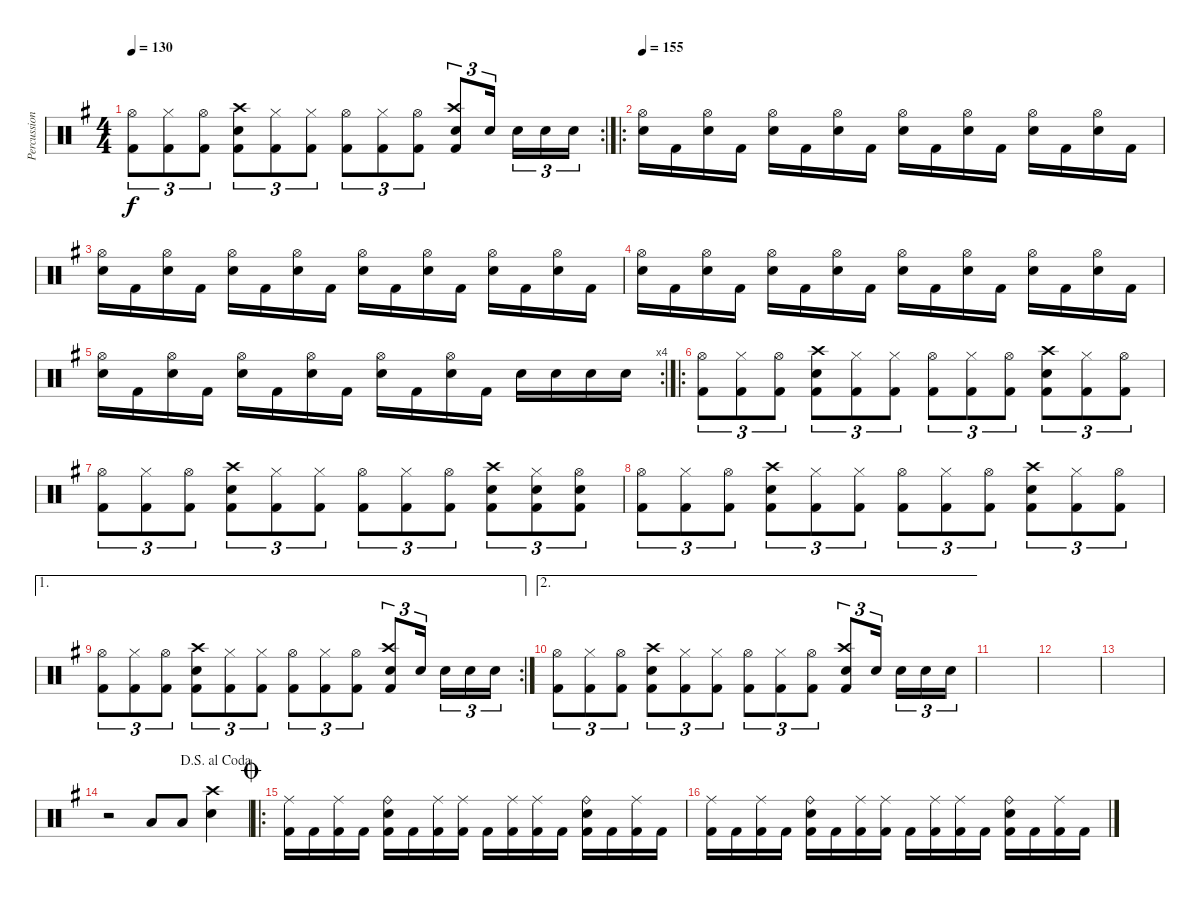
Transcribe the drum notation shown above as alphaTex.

\track ("Percussion" "Percussion") {instrument percussion}
\staff {score}
\articulation defaults
\rc 2
\ts (4 4)
\tempo 130
\clef neutral
\ks eminor
("Hi-Hat (open)" "Kick (hit) 2").8{tu (3 2) dy f} ("Hi-Hat (closed)" "Kick (hit) 2").8{tu (3 2)} ("Hi-Hat (open)" "Kick (hit) 2").8{tu (3 2)} ("Crash high (hit)" "Electric Snare (hit)" "Kick (hit) 2").8{tu (3 2)} ("Hi-Hat (closed)" "Kick (hit) 2").8{tu (3 2)} ("Hi-Hat (closed)" "Kick (hit) 2").8{tu (3 2)} ("Hi-Hat (open)" "Kick (hit) 2").8{tu (3 2)} ("Hi-Hat (closed)" "Kick (hit) 2").8{tu (3 2)} ("Hi-Hat (open)" "Kick (hit) 2").8{tu (3 2)} ("Crash high (hit)" "Electric Snare (hit)" "Kick (hit) 2").8{tu (3 2)} "Electric Snare (hit)".16{tu (3 2) beam splitsecondary} "Electric Snare (hit)".16{tu (3 2)} "Electric Snare (hit)".16{tu (3 2)} "Electric Snare (hit)".16{tu (3 2)} |
\ro
\tempo 155
("Hi-Hat (open)" "Electric Snare (hit)").16 "Kick (hit) 2".16 ("Hi-Hat (open)" "Electric Snare (hit)").16 "Kick (hit) 2".16 ("Hi-Hat (open)" "Electric Snare (hit)").16 "Kick (hit) 2".16 ("Hi-Hat (open)" "Electric Snare (hit)").16 "Kick (hit) 2".16 ("Hi-Hat (open)" "Electric Snare (hit)").16 "Kick (hit) 2".16 ("Hi-Hat (open)" "Electric Snare (hit)").16 "Kick (hit) 2".16 ("Hi-Hat (open)" "Electric Snare (hit)").16 "Kick (hit) 2".16 ("Hi-Hat (open)" "Electric Snare (hit)").16 "Kick (hit) 2".16 |
("Hi-Hat (open)" "Electric Snare (hit)").16 "Kick (hit) 2".16 ("Hi-Hat (open)" "Electric Snare (hit)").16 "Kick (hit) 2".16 ("Hi-Hat (open)" "Electric Snare (hit)").16 "Kick (hit) 2".16 ("Hi-Hat (open)" "Electric Snare (hit)").16 "Kick (hit) 2".16 ("Hi-Hat (open)" "Electric Snare (hit)").16 "Kick (hit) 2".16 ("Hi-Hat (open)" "Electric Snare (hit)").16 "Kick (hit) 2".16 ("Hi-Hat (open)" "Electric Snare (hit)").16 "Kick (hit) 2".16 ("Hi-Hat (open)" "Electric Snare (hit)").16 "Kick (hit) 2".16 |
("Hi-Hat (open)" "Electric Snare (hit)").16 "Kick (hit) 2".16 ("Hi-Hat (open)" "Electric Snare (hit)").16 "Kick (hit) 2".16 ("Hi-Hat (open)" "Electric Snare (hit)").16 "Kick (hit) 2".16 ("Hi-Hat (open)" "Electric Snare (hit)").16 "Kick (hit) 2".16 ("Hi-Hat (open)" "Electric Snare (hit)").16 "Kick (hit) 2".16 ("Hi-Hat (open)" "Electric Snare (hit)").16 "Kick (hit) 2".16 ("Hi-Hat (open)" "Electric Snare (hit)").16 "Kick (hit) 2".16 ("Hi-Hat (open)" "Electric Snare (hit)").16 "Kick (hit) 2".16 |
\rc 4
("Hi-Hat (open)" "Electric Snare (hit)").16 "Kick (hit) 2".16 ("Hi-Hat (open)" "Electric Snare (hit)").16 "Kick (hit) 2".16 ("Hi-Hat (open)" "Electric Snare (hit)").16 "Kick (hit) 2".16 ("Hi-Hat (open)" "Electric Snare (hit)").16 "Kick (hit) 2".16 ("Hi-Hat (open)" "Electric Snare (hit)").16 "Kick (hit) 2".16 ("Hi-Hat (open)" "Electric Snare (hit)").16 "Kick (hit) 2".16 "Electric Snare (hit)".16 "Electric Snare (hit)".16 "Electric Snare (hit)".16 "Electric Snare (hit)".16 |
\ro
("Hi-Hat (open)" "Kick (hit) 2").8{tu (3 2)} ("Hi-Hat (closed)" "Kick (hit) 2").8{tu (3 2)} ("Hi-Hat (open)" "Kick (hit) 2").8{tu (3 2)} ("Crash high (hit)" "Electric Snare (hit)" "Kick (hit) 2").8{tu (3 2)} ("Hi-Hat (closed)" "Kick (hit) 2").8{tu (3 2)} ("Hi-Hat (closed)" "Kick (hit) 2").8{tu (3 2)} ("Hi-Hat (open)" "Kick (hit) 2").8{tu (3 2)} ("Hi-Hat (closed)" "Kick (hit) 2").8{tu (3 2)} ("Hi-Hat (open)" "Kick (hit) 2").8{tu (3 2)} ("Crash high (hit)" "Electric Snare (hit)" "Kick (hit) 2").8{tu (3 2)} ("Hi-Hat (closed)" "Kick (hit) 2").8{tu (3 2)} ("Hi-Hat (open)" "Kick (hit) 2").8{tu (3 2)} |
("Hi-Hat (open)" "Kick (hit) 2").8{tu (3 2)} ("Hi-Hat (closed)" "Kick (hit) 2").8{tu (3 2)} ("Hi-Hat (open)" "Kick (hit) 2").8{tu (3 2)} ("Crash high (hit)" "Electric Snare (hit)" "Kick (hit) 2").8{tu (3 2)} ("Hi-Hat (closed)" "Kick (hit) 2").8{tu (3 2)} ("Hi-Hat (closed)" "Kick (hit) 2").8{tu (3 2)} ("Hi-Hat (open)" "Kick (hit) 2").8{tu (3 2)} ("Hi-Hat (closed)" "Kick (hit) 2").8{tu (3 2)} ("Hi-Hat (open)" "Kick (hit) 2").8{tu (3 2)} ("Crash high (hit)" "Electric Snare (hit)" "Kick (hit) 2").8{tu (3 2)} ("Hi-Hat (closed)" "Electric Snare (hit)" "Kick (hit) 2").8{tu (3 2)} ("Hi-Hat (open)" "Electric Snare (hit)" "Kick (hit) 2").8{tu (3 2)} |
("Hi-Hat (open)" "Kick (hit) 2").8{tu (3 2)} ("Hi-Hat (closed)" "Kick (hit) 2").8{tu (3 2)} ("Hi-Hat (open)" "Kick (hit) 2").8{tu (3 2)} ("Crash high (hit)" "Electric Snare (hit)" "Kick (hit) 2").8{tu (3 2)} ("Hi-Hat (closed)" "Kick (hit) 2").8{tu (3 2)} ("Hi-Hat (closed)" "Kick (hit) 2").8{tu (3 2)} ("Hi-Hat (open)" "Kick (hit) 2").8{tu (3 2)} ("Hi-Hat (closed)" "Kick (hit) 2").8{tu (3 2)} ("Hi-Hat (open)" "Kick (hit) 2").8{tu (3 2)} ("Crash high (hit)" "Electric Snare (hit)" "Kick (hit) 2").8{tu (3 2)} ("Hi-Hat (closed)" "Kick (hit) 2").8{tu (3 2)} ("Hi-Hat (open)" "Kick (hit) 2").8{tu (3 2)} |
\ae 1
\rc 2
("Hi-Hat (open)" "Kick (hit) 2").8{tu (3 2)} ("Hi-Hat (closed)" "Kick (hit) 2").8{tu (3 2)} ("Hi-Hat (open)" "Kick (hit) 2").8{tu (3 2)} ("Crash high (hit)" "Electric Snare (hit)" "Kick (hit) 2").8{tu (3 2)} ("Hi-Hat (closed)" "Kick (hit) 2").8{tu (3 2)} ("Hi-Hat (closed)" "Kick (hit) 2").8{tu (3 2)} ("Hi-Hat (open)" "Kick (hit) 2").8{tu (3 2)} ("Hi-Hat (closed)" "Kick (hit) 2").8{tu (3 2)} ("Hi-Hat (open)" "Kick (hit) 2").8{tu (3 2)} ("Crash high (hit)" "Electric Snare (hit)" "Kick (hit) 2").8{tu (3 2)} "Electric Snare (hit)".16{tu (3 2) beam splitsecondary} "Electric Snare (hit)".16{tu (3 2)} "Electric Snare (hit)".16{tu (3 2)} "Electric Snare (hit)".16{tu (3 2)} |
\ae 2
("Hi-Hat (open)" "Kick (hit) 2").8{tu (3 2)} ("Hi-Hat (closed)" "Kick (hit) 2").8{tu (3 2)} ("Hi-Hat (open)" "Kick (hit) 2").8{tu (3 2)} ("Crash high (hit)" "Electric Snare (hit)" "Kick (hit) 2").8{tu (3 2)} ("Hi-Hat (closed)" "Kick (hit) 2").8{tu (3 2)} ("Hi-Hat (closed)" "Kick (hit) 2").8{tu (3 2)} ("Hi-Hat (open)" "Kick (hit) 2").8{tu (3 2)} ("Hi-Hat (closed)" "Kick (hit) 2").8{tu (3 2)} ("Hi-Hat (open)" "Kick (hit) 2").8{tu (3 2)} ("Crash high (hit)" "Electric Snare (hit)" "Kick (hit) 2").8{tu (3 2)} "Electric Snare (hit)".16{tu (3 2) beam splitsecondary} "Electric Snare (hit)".16{tu (3 2)} "Electric Snare (hit)".16{tu (3 2)} "Electric Snare (hit)".16{tu (3 2)} |
|
|
|
\jump dalsegnoalcoda
r.2 "Low Floor Tom (hit)".8 "Low Floor Tom (hit)".8 ("Crash high (hit)" "Electric Snare (hit)").4 |
\ro
\jump coda
("Ride (middle)" "Kick (hit) 2").16 "Kick (hit) 2".16 ("Ride (middle)" "Kick (hit) 2").16 "Kick (hit) 2".16 ("Ride (bell)" "Electric Snare (hit)" "Kick (hit) 2").16 "Kick (hit) 2".16 ("Ride (middle)" "Kick (hit) 2").16 ("Ride (middle)" "Kick (hit) 2").16 "Kick (hit) 2".16 ("Ride (middle)" "Kick (hit) 2").16 ("Ride (middle)" "Kick (hit) 2").16 "Kick (hit) 2".16 ("Ride (bell)" "Electric Snare (hit)" "Kick (hit) 2").16 "Kick (hit) 2".16 ("Ride (middle)" "Kick (hit) 2").16 "Kick (hit) 2".16 |
("Ride (middle)" "Kick (hit) 2").16 "Kick (hit) 2".16 ("Ride (middle)" "Kick (hit) 2").16 "Kick (hit) 2".16 ("Ride (bell)" "Electric Snare (hit)" "Kick (hit) 2").16 "Kick (hit) 2".16 ("Ride (middle)" "Kick (hit) 2").16 ("Ride (middle)" "Kick (hit) 2").16 "Kick (hit) 2".16 ("Ride (middle)" "Kick (hit) 2").16 ("Ride (middle)" "Kick (hit) 2").16 "Kick (hit) 2".16 ("Ride (bell)" "Electric Snare (hit)" "Kick (hit) 2").16 "Kick (hit) 2".16 ("Ride (middle)" "Kick (hit) 2").16 "Kick (hit) 2".16
